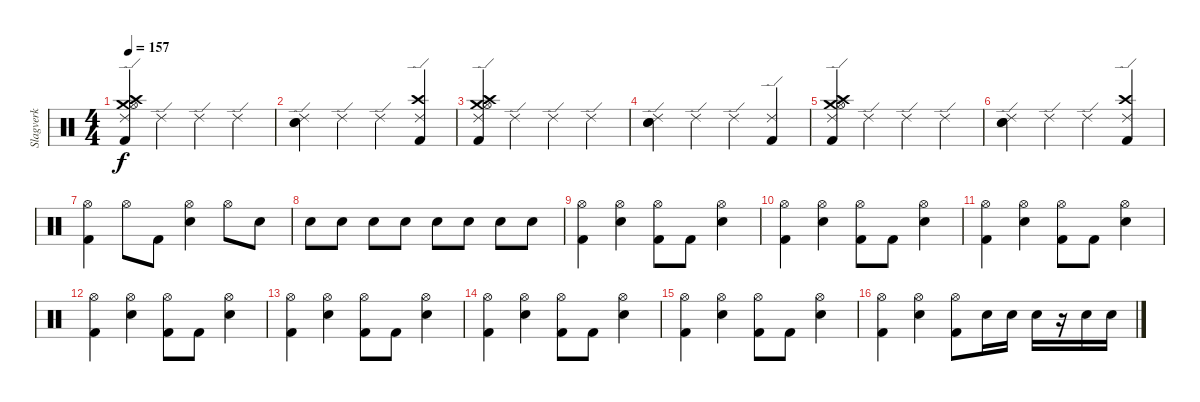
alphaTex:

\track ("Slagverk" "Slagverk") {instrument percussion}
\staff {score}
\articulation defaults
\ts (4 4)
\tempo 157
\clef neutral
\ks c
("Ride (edge) 2" "Crash medium (hit)" "Hi-Hat (open)" "Crash high (hit)" "Kick (hit) 2").4{dy f} "Ride (edge) 2".4 "Ride (edge) 2".4 "Ride (edge) 2".4 |
("Electric Snare (hit)" "Snare (hit) 2" "Ride (edge) 2").4 "Ride (edge) 2".4 "Ride (edge) 2".4 ("Crash high (hit)" "Kick (hit) 2" "Ride (edge) 2").4 |
("Ride (edge) 2" "Crash medium (hit)" "Hi-Hat (open)" "Crash high (hit)" "Kick (hit) 2").4 "Ride (edge) 2".4 "Ride (edge) 2".4 "Ride (edge) 2".4 |
("Electric Snare (hit)" "Snare (hit) 2" "Ride (edge) 2").4 "Ride (edge) 2".4 "Ride (edge) 2".4 ("Kick (hit) 2" "Ride (edge) 2").4 |
("Ride (edge) 2" "Crash medium (hit)" "Hi-Hat (open)" "Crash high (hit)" "Kick (hit) 2").4 "Ride (edge) 2".4 "Ride (edge) 2".4 "Ride (edge) 2".4 |
("Electric Snare (hit)" "Snare (hit) 2" "Ride (edge) 2").4 "Ride (edge) 2".4 "Ride (edge) 2".4 ("Crash high (hit)" "Kick (hit) 2" "Ride (edge) 2").4 |
("Hi-Hat (open)" "Kick (hit) 2").4 "Hi-Hat (open)".8 "Kick (hit) 2".8 ("Hi-Hat (open)" "Snare (hit) 2").4 "Hi-Hat (open)".8 "Snare (hit) 2".8 |
"Snare (hit) 2".8{volume 0} "Snare (hit) 2".8{volume 1} "Snare (hit) 2".8{volume 3} "Snare (hit) 2".8{volume 4} "Snare (hit) 2".8{volume 6} "Snare (hit) 2".8{volume 7} "Snare (hit) 2".8{volume 9} "Snare (hit) 2".8{volume 10} |
("Hi-Hat (open)" "Kick (hit) 2").4{volume 12} ("Hi-Hat (open)" "Snare (hit) 2").4 ("Hi-Hat (open)" "Kick (hit) 2").8 "Kick (hit) 2".8 ("Hi-Hat (open)" "Snare (hit) 2").4 |
("Hi-Hat (open)" "Kick (hit) 2").4 ("Hi-Hat (open)" "Snare (hit) 2").4 ("Hi-Hat (open)" "Kick (hit) 2").8 "Kick (hit) 2".8 ("Hi-Hat (open)" "Snare (hit) 2").4 |
("Hi-Hat (open)" "Kick (hit) 2").4 ("Hi-Hat (open)" "Snare (hit) 2").4 ("Hi-Hat (open)" "Kick (hit) 2").8 "Kick (hit) 2".8 ("Hi-Hat (open)" "Snare (hit) 2").4 |
("Hi-Hat (open)" "Kick (hit) 2").4 ("Hi-Hat (open)" "Snare (hit) 2").4 ("Hi-Hat (open)" "Kick (hit) 2").8 "Kick (hit) 2".8 ("Hi-Hat (open)" "Snare (hit) 2").4 |
("Hi-Hat (open)" "Kick (hit) 2").4 ("Hi-Hat (open)" "Snare (hit) 2").4 ("Hi-Hat (open)" "Kick (hit) 2").8 "Kick (hit) 2".8 ("Hi-Hat (open)" "Snare (hit) 2").4 |
("Hi-Hat (open)" "Kick (hit) 2").4 ("Hi-Hat (open)" "Snare (hit) 2").4 ("Hi-Hat (open)" "Kick (hit) 2").8 "Kick (hit) 2".8 ("Hi-Hat (open)" "Snare (hit) 2").4 |
("Hi-Hat (open)" "Kick (hit) 2").4 ("Hi-Hat (open)" "Snare (hit) 2").4 ("Hi-Hat (open)" "Kick (hit) 2").8 "Kick (hit) 2".8 ("Hi-Hat (open)" "Snare (hit) 2").4 |
("Hi-Hat (open)" "Kick (hit) 2").4 ("Hi-Hat (open)" "Snare (hit) 2").4 ("Hi-Hat (open)" "Kick (hit) 2").8 "Snare (hit) 2".16 "Snare (hit) 2".16 "Snare (hit) 2".16 r.16 "Snare (hit) 2".16 "Snare (hit) 2".16
